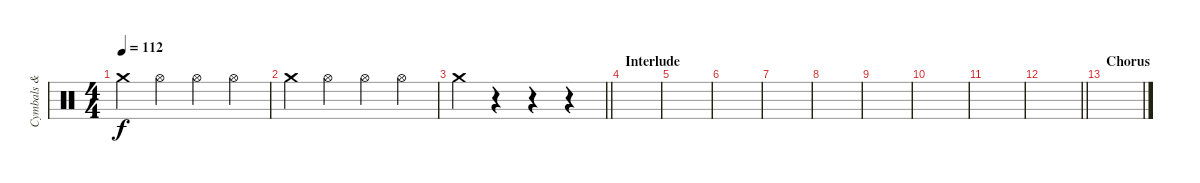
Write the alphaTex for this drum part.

\track ("Cymbals & Hi - Hats" "Cymbals & ") {instrument percussion}
\staff {score}
\articulation defaults
\ts (4 4)
\tempo 112
\clef neutral
\ks c "Crash medium (hit)".4{dy f} "Hi-Hat (open)".4 "Hi-Hat (open)".4 "Hi-Hat (open)".4
|
"Crash medium (hit)".4 "Hi-Hat (open)".4 "Hi-Hat (open)".4 "Hi-Hat (open)".4 |
\barLineRight lightlight "Crash medium (hit)".4
r.4 r.4 r.4 |
\section ("" "Interlude")
|
|
|
|
|
|
|
|
\barLineRight lightlight
|
\section ("" "Chorus")
